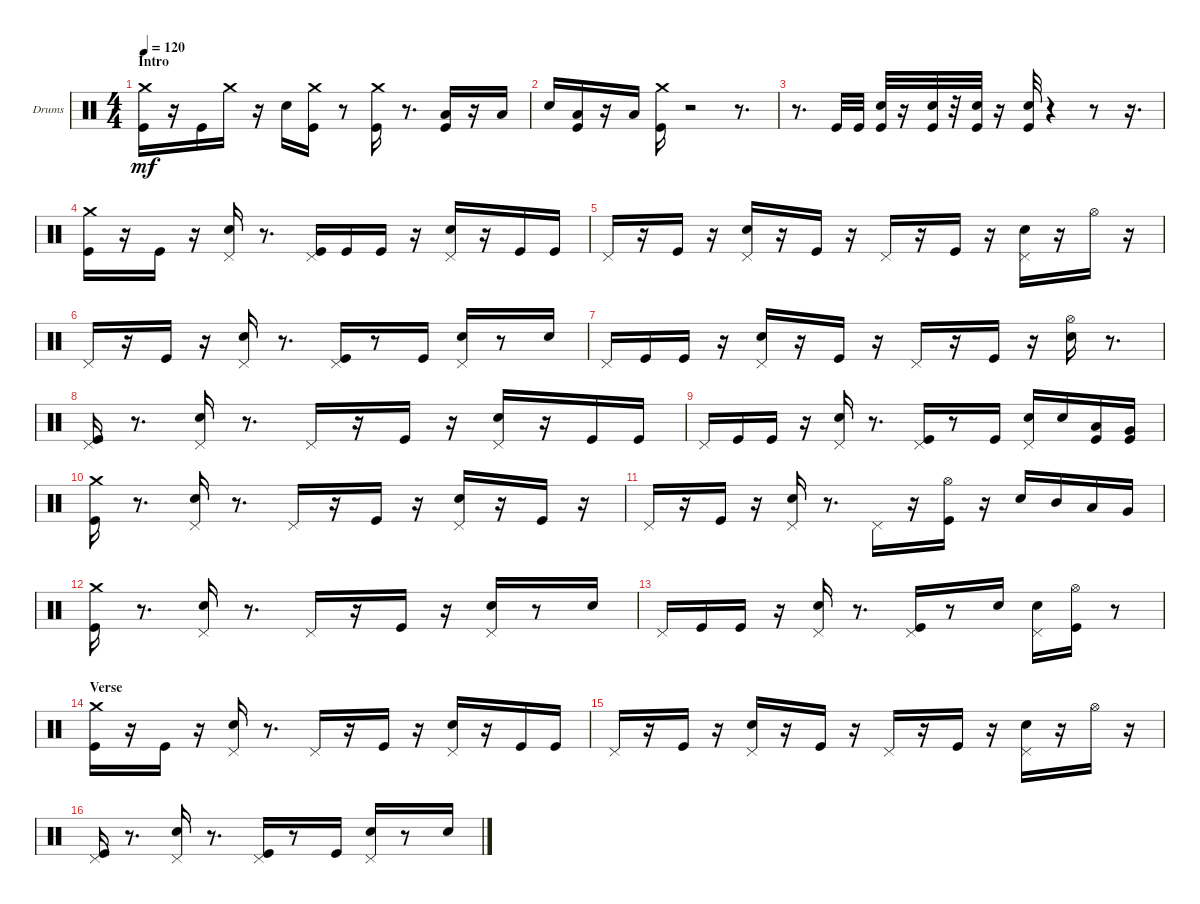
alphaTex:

\bracketExtendMode groupsimilarinstruments
\firstSystemTrackNameOrientation horizontal
\otherSystemsTrackNameOrientation horizontal
\track ("Drumkit" "Drums") {instrument percussion}
\staff {score}
\articulation defaults
\ts (4 4)
\beaming (8 2 2 2 2)
\section ("" "Intro")
\tempo 120
\clef neutral
\ks aminor
("Kick (hit)" "Crash medium (hit)").16{dy mf} r.16 "Kick (hit)".16 "Crash medium (hit)".16 r.16 "Snare (hit) 2".16 ("Kick (hit)" "Crash medium (hit)").16 r.8 ("Kick (hit)" "Crash medium (hit)").16 r.8{d} ("Kick (hit)" "Low Tom (hit)").16 r.16 "Low Tom (hit)".16 |
"Snare (hit) 2".16 ("Kick (hit)" "Low Tom (hit)").16 r.16 "Low Tom (hit)".16 ("Kick (hit)" "Crash medium (hit)").16 r.2 r.8{d} |
r.8{d} "Kick (hit)".32 "Kick (hit)".32 ("Kick (hit)" "Snare (hit) 2").32 r.16 ("Kick (hit)" "Snare (hit) 2").32 r.32 ("Kick (hit)" "Snare (hit) 2").32 r.16 ("Kick (hit)" "Snare (hit) 2").32 r.4 r.8 r.16{d} |
("Kick (hit)" "Crash medium (hit)").16 r.16 "Kick (hit)".16 r.16 ("Snare (hit) 2" "Pedal Hi-Hat (hit)").16 r.8{d} ("Kick (hit)" "Pedal Hi-Hat (hit)").16 "Kick (hit)".16 "Kick (hit)".16 r.16 ("Snare (hit) 2" "Pedal Hi-Hat (hit)").16 r.16 "Kick (hit)".16 "Kick (hit)".16 |
"Pedal Hi-Hat (hit)".16 r.16 "Kick (hit)".16 r.16 ("Snare (hit) 2" "Pedal Hi-Hat (hit)").16 r.16 "Kick (hit)".16 r.16 "Pedal Hi-Hat (hit)".16 r.16 "Kick (hit)".16 r.16 ("Snare (hit) 2" "Pedal Hi-Hat (hit)").16 r.16 "Hi-Hat (open)".16 r.16 |
"Pedal Hi-Hat (hit)".16 r.16 "Kick (hit)".16 r.16 ("Snare (hit) 2" "Pedal Hi-Hat (hit)").16 r.8{d} ("Kick (hit)" "Pedal Hi-Hat (hit)").16 r.8 "Kick (hit)".16 ("Snare (hit) 2" "Pedal Hi-Hat (hit)").16 r.8 "Snare (hit) 2".16 |
"Pedal Hi-Hat (hit)".16 "Kick (hit)".16 "Kick (hit)".16 r.16 ("Snare (hit) 2" "Pedal Hi-Hat (hit)").16 r.16 "Kick (hit)".16 r.16 "Pedal Hi-Hat (hit)".16 r.16 "Kick (hit)".16 r.16 ("Snare (hit) 2" "Hi-Hat (open)").16 r.8{d} |
("Kick (hit)" "Pedal Hi-Hat (hit)").16 r.8{d} ("Snare (hit) 2" "Pedal Hi-Hat (hit)").16 r.8{d} "Pedal Hi-Hat (hit)".16 r.16 "Kick (hit)".16 r.16 ("Snare (hit) 2" "Pedal Hi-Hat (hit)").16 r.16 "Kick (hit)".16 "Kick (hit)".16 |
"Pedal Hi-Hat (hit)".16 "Kick (hit)".16 "Kick (hit)".16 r.16 ("Snare (hit) 2" "Pedal Hi-Hat (hit)").16 r.8{d} ("Kick (hit)" "Pedal Hi-Hat (hit)").16 r.8 "Kick (hit)".16 ("Snare (hit) 2" "Pedal Hi-Hat (hit)").16 "Snare (hit) 2".16 ("Kick (hit)" "Low Tom (hit)").16 ("Kick (hit)" "Very Low Tom (hit)").16 |
("Kick (hit)" "Crash medium (hit)").16 r.8{d} ("Snare (hit) 2" "Pedal Hi-Hat (hit)").16 r.8{d} "Pedal Hi-Hat (hit)".16 r.16 "Kick (hit)".16 r.16 ("Snare (hit) 2" "Pedal Hi-Hat (hit)").16 r.16 "Kick (hit)".16 r.16 |
"Pedal Hi-Hat (hit)".16 r.16 "Kick (hit)".16 r.16 ("Snare (hit) 2" "Pedal Hi-Hat (hit)").16 r.8{d} "Pedal Hi-Hat (hit)".16 r.16 ("Kick (hit)" "Hi-Hat (open)").16 r.16 "Snare (hit) 2".16 "Mid Tom (hit)".16 "Low Tom (hit)".16 "Very Low Tom (hit)".16 |
("Kick (hit)" "Crash medium (hit)").16 r.8{d} ("Snare (hit) 2" "Pedal Hi-Hat (hit)").16 r.8{d} "Pedal Hi-Hat (hit)".16 r.16 "Kick (hit)".16 r.16 ("Snare (hit) 2" "Pedal Hi-Hat (hit)").16 r.8 "Snare (hit) 2".16 |
"Pedal Hi-Hat (hit)".16 "Kick (hit)".16 "Kick (hit)".16 r.16 ("Snare (hit) 2" "Pedal Hi-Hat (hit)").16 r.8{d} ("Kick (hit)" "Pedal Hi-Hat (hit)").16 r.8 "Snare (hit) 2".16 ("Snare (hit) 2" "Pedal Hi-Hat (hit)").16 ("Kick (hit)" "Hi-Hat (open)").16 r.8 |
\section ("" "Verse")
("Kick (hit)" "Crash medium (hit)").16 r.16 "Kick (hit)".16 r.16 ("Snare (hit) 2" "Pedal Hi-Hat (hit)").16 r.8{d} "Pedal Hi-Hat (hit)".16 r.16 "Kick (hit)".16 r.16 ("Snare (hit) 2" "Pedal Hi-Hat (hit)").16 r.16 "Kick (hit)".16 "Kick (hit)".16 |
"Pedal Hi-Hat (hit)".16 r.16 "Kick (hit)".16 r.16 ("Snare (hit) 2" "Pedal Hi-Hat (hit)").16 r.16 "Kick (hit)".16 r.16 "Pedal Hi-Hat (hit)".16 r.16 "Kick (hit)".16 r.16 ("Snare (hit) 2" "Pedal Hi-Hat (hit)").16 r.16 "Hi-Hat (open)".16 r.16 |
("Kick (hit)" "Pedal Hi-Hat (hit)").16 r.8{d} ("Snare (hit) 2" "Pedal Hi-Hat (hit)").16 r.8{d} ("Kick (hit)" "Pedal Hi-Hat (hit)").16 r.8 "Kick (hit)".16 ("Snare (hit) 2" "Pedal Hi-Hat (hit)").16 r.8 "Snare (hit) 2".16
